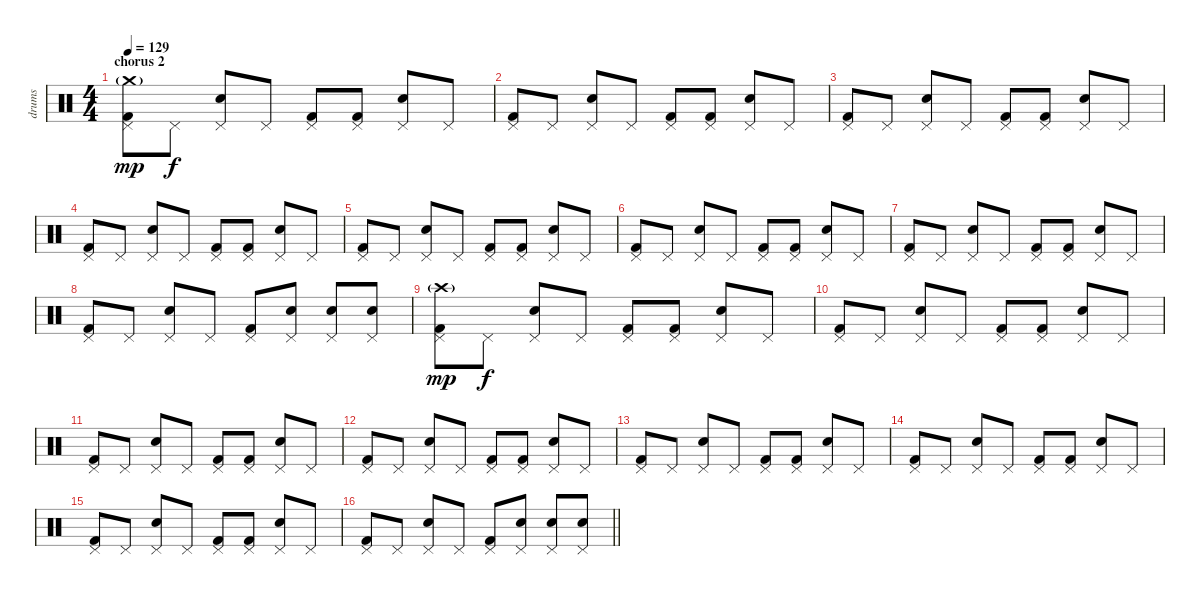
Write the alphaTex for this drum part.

\track ("drums" "drums") {instrument percussion}
\staff {score}
\articulation defaults
\ts (4 4)
\section ("" "chorus 2")
\tempo 129
\clef neutral
\ks c
("Kick (hit) 2" "Pedal Hi-Hat (hit)" "Crash medium (hit)"{g}).8{dy mp} "Pedal Hi-Hat (hit)".8{dy f} ("Electric Snare (hit)" "Pedal Hi-Hat (hit)").8 "Pedal Hi-Hat (hit)".8 ("Kick (hit) 2" "Pedal Hi-Hat (hit)").8 ("Kick (hit) 2" "Pedal Hi-Hat (hit)").8 ("Electric Snare (hit)" "Pedal Hi-Hat (hit)").8 "Pedal Hi-Hat (hit)".8 |
("Kick (hit) 2" "Pedal Hi-Hat (hit)").8 "Pedal Hi-Hat (hit)".8 ("Electric Snare (hit)" "Pedal Hi-Hat (hit)").8 "Pedal Hi-Hat (hit)".8 ("Kick (hit) 2" "Pedal Hi-Hat (hit)").8 ("Kick (hit) 2" "Pedal Hi-Hat (hit)").8 ("Electric Snare (hit)" "Pedal Hi-Hat (hit)").8 "Pedal Hi-Hat (hit)".8 |
("Kick (hit) 2" "Pedal Hi-Hat (hit)").8 "Pedal Hi-Hat (hit)".8 ("Electric Snare (hit)" "Pedal Hi-Hat (hit)").8 "Pedal Hi-Hat (hit)".8 ("Kick (hit) 2" "Pedal Hi-Hat (hit)").8 ("Kick (hit) 2" "Pedal Hi-Hat (hit)").8 ("Electric Snare (hit)" "Pedal Hi-Hat (hit)").8 "Pedal Hi-Hat (hit)".8 |
("Kick (hit) 2" "Pedal Hi-Hat (hit)").8 "Pedal Hi-Hat (hit)".8 ("Electric Snare (hit)" "Pedal Hi-Hat (hit)").8 "Pedal Hi-Hat (hit)".8 ("Kick (hit) 2" "Pedal Hi-Hat (hit)").8 ("Kick (hit) 2" "Pedal Hi-Hat (hit)").8 ("Electric Snare (hit)" "Pedal Hi-Hat (hit)").8 "Pedal Hi-Hat (hit)".8 |
("Kick (hit) 2" "Pedal Hi-Hat (hit)").8 "Pedal Hi-Hat (hit)".8 ("Electric Snare (hit)" "Pedal Hi-Hat (hit)").8 "Pedal Hi-Hat (hit)".8 ("Kick (hit) 2" "Pedal Hi-Hat (hit)").8 ("Kick (hit) 2" "Pedal Hi-Hat (hit)").8 ("Electric Snare (hit)" "Pedal Hi-Hat (hit)").8 "Pedal Hi-Hat (hit)".8 |
("Kick (hit) 2" "Pedal Hi-Hat (hit)").8 "Pedal Hi-Hat (hit)".8 ("Electric Snare (hit)" "Pedal Hi-Hat (hit)").8 "Pedal Hi-Hat (hit)".8 ("Kick (hit) 2" "Pedal Hi-Hat (hit)").8 ("Kick (hit) 2" "Pedal Hi-Hat (hit)").8 ("Electric Snare (hit)" "Pedal Hi-Hat (hit)").8 "Pedal Hi-Hat (hit)".8 |
("Kick (hit) 2" "Pedal Hi-Hat (hit)").8 "Pedal Hi-Hat (hit)".8 ("Electric Snare (hit)" "Pedal Hi-Hat (hit)").8 "Pedal Hi-Hat (hit)".8 ("Kick (hit) 2" "Pedal Hi-Hat (hit)").8 ("Kick (hit) 2" "Pedal Hi-Hat (hit)").8 ("Electric Snare (hit)" "Pedal Hi-Hat (hit)").8 "Pedal Hi-Hat (hit)".8 |
("Kick (hit) 2" "Pedal Hi-Hat (hit)").8 "Pedal Hi-Hat (hit)".8 ("Electric Snare (hit)" "Pedal Hi-Hat (hit)").8 "Pedal Hi-Hat (hit)".8 ("Kick (hit) 2" "Pedal Hi-Hat (hit)").8 ("Electric Snare (hit)" "Pedal Hi-Hat (hit)").8 ("Electric Snare (hit)" "Pedal Hi-Hat (hit)").8 ("Electric Snare (hit)" "Pedal Hi-Hat (hit)").8 |
("Kick (hit) 2" "Pedal Hi-Hat (hit)" "Crash high (hit)"{g}).8{dy mp} "Pedal Hi-Hat (hit)".8{dy f} ("Electric Snare (hit)" "Pedal Hi-Hat (hit)").8 "Pedal Hi-Hat (hit)".8 ("Kick (hit) 2" "Pedal Hi-Hat (hit)").8 ("Kick (hit) 2" "Pedal Hi-Hat (hit)").8 ("Electric Snare (hit)" "Pedal Hi-Hat (hit)").8 "Pedal Hi-Hat (hit)".8 |
("Kick (hit) 2" "Pedal Hi-Hat (hit)").8 "Pedal Hi-Hat (hit)".8 ("Electric Snare (hit)" "Pedal Hi-Hat (hit)").8 "Pedal Hi-Hat (hit)".8 ("Kick (hit) 2" "Pedal Hi-Hat (hit)").8 ("Kick (hit) 2" "Pedal Hi-Hat (hit)").8 ("Electric Snare (hit)" "Pedal Hi-Hat (hit)").8 "Pedal Hi-Hat (hit)".8 |
("Kick (hit) 2" "Pedal Hi-Hat (hit)").8 "Pedal Hi-Hat (hit)".8 ("Electric Snare (hit)" "Pedal Hi-Hat (hit)").8 "Pedal Hi-Hat (hit)".8 ("Kick (hit) 2" "Pedal Hi-Hat (hit)").8 ("Kick (hit) 2" "Pedal Hi-Hat (hit)").8 ("Electric Snare (hit)" "Pedal Hi-Hat (hit)").8 "Pedal Hi-Hat (hit)".8 |
("Kick (hit) 2" "Pedal Hi-Hat (hit)").8 "Pedal Hi-Hat (hit)".8 ("Electric Snare (hit)" "Pedal Hi-Hat (hit)").8 "Pedal Hi-Hat (hit)".8 ("Kick (hit) 2" "Pedal Hi-Hat (hit)").8 ("Kick (hit) 2" "Pedal Hi-Hat (hit)").8 ("Electric Snare (hit)" "Pedal Hi-Hat (hit)").8 "Pedal Hi-Hat (hit)".8 |
("Kick (hit) 2" "Pedal Hi-Hat (hit)").8 "Pedal Hi-Hat (hit)".8 ("Electric Snare (hit)" "Pedal Hi-Hat (hit)").8 "Pedal Hi-Hat (hit)".8 ("Kick (hit) 2" "Pedal Hi-Hat (hit)").8 ("Kick (hit) 2" "Pedal Hi-Hat (hit)").8 ("Electric Snare (hit)" "Pedal Hi-Hat (hit)").8 "Pedal Hi-Hat (hit)".8 |
("Kick (hit) 2" "Pedal Hi-Hat (hit)").8 "Pedal Hi-Hat (hit)".8 ("Electric Snare (hit)" "Pedal Hi-Hat (hit)").8 "Pedal Hi-Hat (hit)".8 ("Kick (hit) 2" "Pedal Hi-Hat (hit)").8 ("Kick (hit) 2" "Pedal Hi-Hat (hit)").8 ("Electric Snare (hit)" "Pedal Hi-Hat (hit)").8 "Pedal Hi-Hat (hit)".8 |
("Kick (hit) 2" "Pedal Hi-Hat (hit)").8 "Pedal Hi-Hat (hit)".8 ("Electric Snare (hit)" "Pedal Hi-Hat (hit)").8 "Pedal Hi-Hat (hit)".8 ("Kick (hit) 2" "Pedal Hi-Hat (hit)").8 ("Kick (hit) 2" "Pedal Hi-Hat (hit)").8 ("Electric Snare (hit)" "Pedal Hi-Hat (hit)").8 "Pedal Hi-Hat (hit)".8 |
\barLineRight lightlight
("Kick (hit) 2" "Pedal Hi-Hat (hit)").8 "Pedal Hi-Hat (hit)".8 ("Electric Snare (hit)" "Pedal Hi-Hat (hit)").8 "Pedal Hi-Hat (hit)".8 ("Kick (hit) 2" "Pedal Hi-Hat (hit)").8 ("Electric Snare (hit)" "Pedal Hi-Hat (hit)").8 ("Electric Snare (hit)" "Pedal Hi-Hat (hit)").8 ("Electric Snare (hit)" "Pedal Hi-Hat (hit)").8
